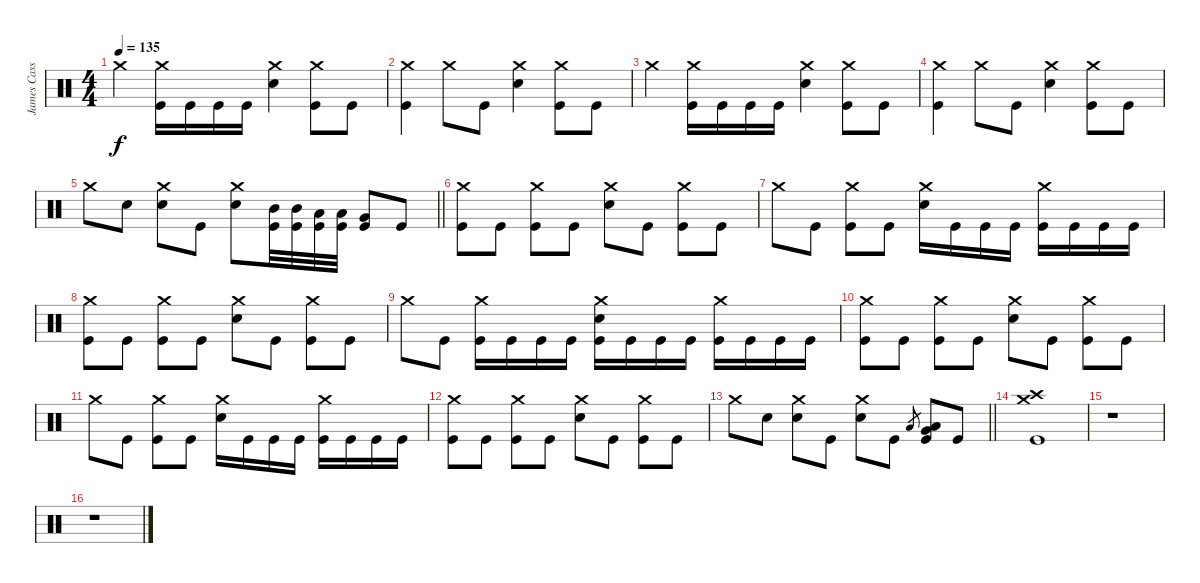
\track ("James Cassells" "James Cass") {instrument percussion}
\staff {score}
\articulation defaults
\ts (4 4)
\tempo 135
\clef neutral
\ks c "Crash medium (hit)".4{dy f}
("Crash medium (hit)" "Kick (hit)").16 "Kick (hit)".16 "Kick (hit)".16 "Kick (hit)".16 ("Crash medium (hit)" "Snare (hit) 2").4 ("Crash medium (hit)" "Kick (hit)").8 "Kick (hit)".8 |
("Crash medium (hit)" "Kick (hit)").4 "Crash medium (hit)".8 "Kick (hit)".8 ("Crash medium (hit)" "Snare (hit) 2").4 ("Crash medium (hit)" "Kick (hit)").8 "Kick (hit)".8 |
"Crash medium (hit)".4 ("Crash medium (hit)" "Kick (hit)").16 "Kick (hit)".16 "Kick (hit)".16 "Kick (hit)".16 ("Crash medium (hit)" "Snare (hit) 2").4 ("Crash medium (hit)" "Kick (hit)").8 "Kick (hit)".8 |
("Crash medium (hit)" "Kick (hit)").4 "Crash medium (hit)".8 "Kick (hit)".8 ("Crash medium (hit)" "Snare (hit) 2").4 ("Crash medium (hit)" "Kick (hit)").8 "Kick (hit)".8 |
\barLineRight lightlight "Crash medium (hit)".8 "Snare (hit) 2".8
("Crash medium (hit)" "Snare (hit) 2").8 "Kick (hit)".8 ("Crash medium (hit)" "Snare (hit) 2").8 ("Mid Tom (hit)" "Kick (hit)").32 ("Mid Tom (hit)" "Kick (hit)").32 ("Low Tom (hit)" "Kick (hit)").32 ("Low Tom (hit)" "Kick (hit)").32 ("Very Low Tom (hit)" "Kick (hit)").8 "Kick (hit)".8 |
("Crash medium (hit)" "Kick (hit)").8 "Kick (hit)".8 ("Crash medium (hit)" "Kick (hit)").8 "Kick (hit)".8 ("Crash medium (hit)" "Snare (hit) 2").8 "Kick (hit)".8 ("Crash medium (hit)" "Kick (hit)").8 "Kick (hit)".8 |
"Crash medium (hit)".8 "Kick (hit)".8 ("Crash medium (hit)" "Kick (hit)").8 "Kick (hit)".8 ("Crash medium (hit)" "Snare (hit) 2").16 "Kick (hit)".16 "Kick (hit)".16 "Kick (hit)".16 ("Crash medium (hit)" "Kick (hit)").16 "Kick (hit)".16 "Kick (hit)".16 "Kick (hit)".16 |
("Crash medium (hit)" "Kick (hit)").8 "Kick (hit)".8 ("Crash medium (hit)" "Kick (hit)").8 "Kick (hit)".8 ("Crash medium (hit)" "Snare (hit) 2").8 "Kick (hit)".8 ("Crash medium (hit)" "Kick (hit)").8 "Kick (hit)".8 |
"Crash medium (hit)".8 "Kick (hit)".8 ("Crash medium (hit)" "Kick (hit)").16 "Kick (hit)".16 "Kick (hit)".16 "Kick (hit)".16 ("Crash medium (hit)" "Snare (hit) 2" "Kick (hit)").16 "Kick (hit)".16 "Kick (hit)".16 "Kick (hit)".16 ("Crash medium (hit)" "Kick (hit)").16 "Kick (hit)".16 "Kick (hit)".16 "Kick (hit)".16 |
("Crash medium (hit)" "Kick (hit)").8 "Kick (hit)".8 ("Crash medium (hit)" "Kick (hit)").8 "Kick (hit)".8 ("Crash medium (hit)" "Snare (hit) 2").8 "Kick (hit)".8 ("Crash medium (hit)" "Kick (hit)").8 "Kick (hit)".8 |
"Crash medium (hit)".8 "Kick (hit)".8 ("Crash medium (hit)" "Kick (hit)").8 "Kick (hit)".8 ("Crash medium (hit)" "Snare (hit) 2").16 "Kick (hit)".16 "Kick (hit)".16 "Kick (hit)".16 ("Crash medium (hit)" "Kick (hit)").16 "Kick (hit)".16 "Kick (hit)".16 "Kick (hit)".16 |
("Crash medium (hit)" "Kick (hit)").8 "Kick (hit)".8 ("Crash medium (hit)" "Kick (hit)").8 "Kick (hit)".8 ("Crash medium (hit)" "Snare (hit) 2").8 "Kick (hit)".8 ("Crash medium (hit)" "Kick (hit)").8 "Kick (hit)".8 |
\barLineRight lightlight "Crash medium (hit)".8 "Snare (hit) 2".8
("Crash medium (hit)" "Snare (hit) 2").8 "Kick (hit)".8 ("Crash medium (hit)" "Snare (hit) 2").8 "Kick (hit)".8 "Low Tom (hit)".8{gr} ("Low Tom (hit)" "Very Low Tom (hit)" "Kick (hit)").8 "Kick (hit)".8 |
("Crash medium (hit)" "Crash high (hit)" "Kick (hit)").1 |
r.1 |
r.1
